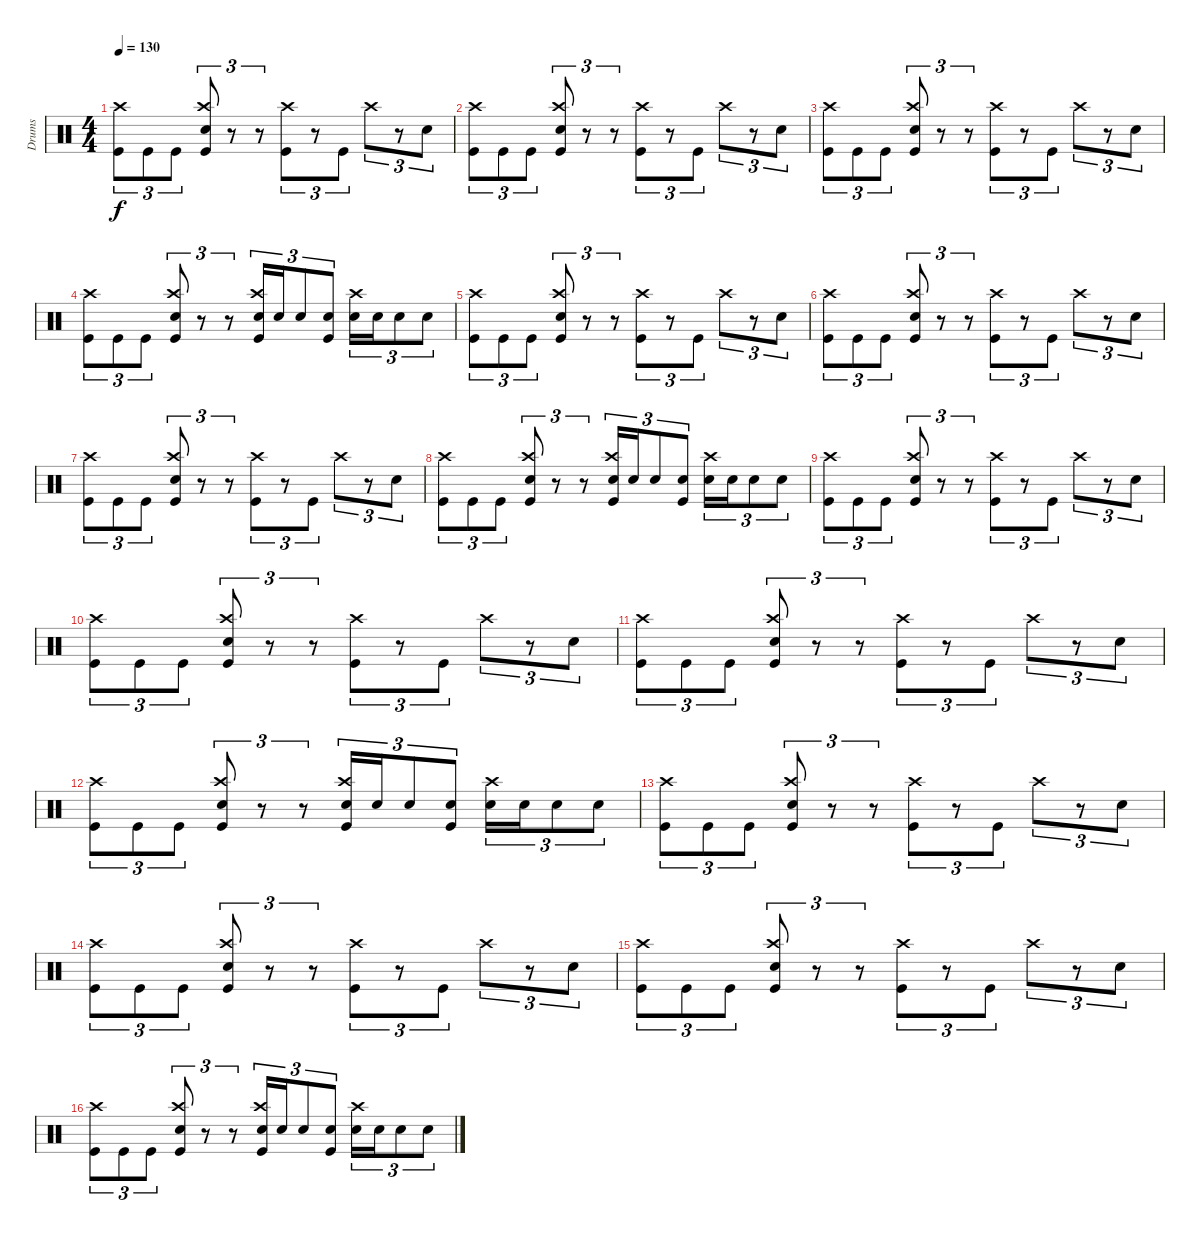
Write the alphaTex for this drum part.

\track ("Drums" "Drums") {instrument percussion}
\staff {score}
\articulation defaults
\ts (4 4)
\tempo 130
\clef neutral
\ks c
("Kick (hit)" "Crash high (hit)").8{tu (3 2) dy f} "Kick (hit)".8{tu (3 2)} "Kick (hit)".8{tu (3 2)} ("Kick (hit)" "Snare (hit) 2" "Crash high (hit)").8{tu (3 2)} r.8{tu (3 2)} r.8{tu (3 2)} ("Kick (hit)" "Crash high (hit)").8{tu (3 2)} r.8{tu (3 2)} "Kick (hit)".8{tu (3 2)} "Crash high (hit)".8{tu (3 2)} r.8{tu (3 2)} "Snare (hit) 2".8{tu (3 2)} |
("Kick (hit)" "Crash high (hit)").8{tu (3 2)} "Kick (hit)".8{tu (3 2)} "Kick (hit)".8{tu (3 2)} ("Kick (hit)" "Snare (hit) 2" "Crash high (hit)").8{tu (3 2)} r.8{tu (3 2)} r.8{tu (3 2)} ("Kick (hit)" "Crash high (hit)").8{tu (3 2)} r.8{tu (3 2)} "Kick (hit)".8{tu (3 2)} "Crash high (hit)".8{tu (3 2)} r.8{tu (3 2)} "Snare (hit) 2".8{tu (3 2)} |
("Kick (hit)" "Crash high (hit)").8{tu (3 2)} "Kick (hit)".8{tu (3 2)} "Kick (hit)".8{tu (3 2)} ("Kick (hit)" "Snare (hit) 2" "Crash high (hit)").8{tu (3 2)} r.8{tu (3 2)} r.8{tu (3 2)} ("Kick (hit)" "Crash high (hit)").8{tu (3 2)} r.8{tu (3 2)} "Kick (hit)".8{tu (3 2)} "Crash high (hit)".8{tu (3 2)} r.8{tu (3 2)} "Snare (hit) 2".8{tu (3 2)} |
("Kick (hit)" "Crash high (hit)").8{tu (3 2)} "Kick (hit)".8{tu (3 2)} "Kick (hit)".8{tu (3 2)} ("Kick (hit)" "Snare (hit) 2" "Crash high (hit)").8{tu (3 2)} r.8{tu (3 2)} r.8{tu (3 2)} ("Kick (hit)" "Snare (hit) 2" "Crash high (hit)").16{tu (3 2)} "Snare (hit) 2".16{tu (3 2)} "Snare (hit) 2".8{tu (3 2)} ("Kick (hit)" "Snare (hit) 2").8{tu (3 2)} ("Snare (hit) 2" "Crash high (hit)").16{tu (3 2)} "Snare (hit) 2".16{tu (3 2)} "Snare (hit) 2".8{tu (3 2)} "Snare (hit) 2".8{tu (3 2)} |
("Kick (hit)" "Crash high (hit)").8{tu (3 2)} "Kick (hit)".8{tu (3 2)} "Kick (hit)".8{tu (3 2)} ("Kick (hit)" "Snare (hit) 2" "Crash high (hit)").8{tu (3 2)} r.8{tu (3 2)} r.8{tu (3 2)} ("Kick (hit)" "Crash high (hit)").8{tu (3 2)} r.8{tu (3 2)} "Kick (hit)".8{tu (3 2)} "Crash high (hit)".8{tu (3 2)} r.8{tu (3 2)} "Snare (hit) 2".8{tu (3 2)} |
("Kick (hit)" "Crash high (hit)").8{tu (3 2)} "Kick (hit)".8{tu (3 2)} "Kick (hit)".8{tu (3 2)} ("Kick (hit)" "Snare (hit) 2" "Crash high (hit)").8{tu (3 2)} r.8{tu (3 2)} r.8{tu (3 2)} ("Kick (hit)" "Crash high (hit)").8{tu (3 2)} r.8{tu (3 2)} "Kick (hit)".8{tu (3 2)} "Crash high (hit)".8{tu (3 2)} r.8{tu (3 2)} "Snare (hit) 2".8{tu (3 2)} |
("Kick (hit)" "Crash high (hit)").8{tu (3 2)} "Kick (hit)".8{tu (3 2)} "Kick (hit)".8{tu (3 2)} ("Kick (hit)" "Snare (hit) 2" "Crash high (hit)").8{tu (3 2)} r.8{tu (3 2)} r.8{tu (3 2)} ("Kick (hit)" "Crash high (hit)").8{tu (3 2)} r.8{tu (3 2)} "Kick (hit)".8{tu (3 2)} "Crash high (hit)".8{tu (3 2)} r.8{tu (3 2)} "Snare (hit) 2".8{tu (3 2)} |
("Kick (hit)" "Crash high (hit)").8{tu (3 2)} "Kick (hit)".8{tu (3 2)} "Kick (hit)".8{tu (3 2)} ("Kick (hit)" "Snare (hit) 2" "Crash high (hit)").8{tu (3 2)} r.8{tu (3 2)} r.8{tu (3 2)} ("Kick (hit)" "Snare (hit) 2" "Crash high (hit)").16{tu (3 2)} "Snare (hit) 2".16{tu (3 2)} "Snare (hit) 2".8{tu (3 2)} ("Kick (hit)" "Snare (hit) 2").8{tu (3 2)} ("Snare (hit) 2" "Crash high (hit)").16{tu (3 2)} "Snare (hit) 2".16{tu (3 2)} "Snare (hit) 2".8{tu (3 2)} "Snare (hit) 2".8{tu (3 2)} |
("Kick (hit)" "Crash high (hit)").8{tu (3 2)} "Kick (hit)".8{tu (3 2)} "Kick (hit)".8{tu (3 2)} ("Kick (hit)" "Snare (hit) 2" "Crash high (hit)").8{tu (3 2)} r.8{tu (3 2)} r.8{tu (3 2)} ("Kick (hit)" "Crash high (hit)").8{tu (3 2)} r.8{tu (3 2)} "Kick (hit)".8{tu (3 2)} "Crash high (hit)".8{tu (3 2)} r.8{tu (3 2)} "Snare (hit) 2".8{tu (3 2)} |
("Kick (hit)" "Crash high (hit)").8{tu (3 2)} "Kick (hit)".8{tu (3 2)} "Kick (hit)".8{tu (3 2)} ("Kick (hit)" "Snare (hit) 2" "Crash high (hit)").8{tu (3 2)} r.8{tu (3 2)} r.8{tu (3 2)} ("Kick (hit)" "Crash high (hit)").8{tu (3 2)} r.8{tu (3 2)} "Kick (hit)".8{tu (3 2)} "Crash high (hit)".8{tu (3 2)} r.8{tu (3 2)} "Snare (hit) 2".8{tu (3 2)} |
("Kick (hit)" "Crash high (hit)").8{tu (3 2)} "Kick (hit)".8{tu (3 2)} "Kick (hit)".8{tu (3 2)} ("Kick (hit)" "Snare (hit) 2" "Crash high (hit)").8{tu (3 2)} r.8{tu (3 2)} r.8{tu (3 2)} ("Kick (hit)" "Crash high (hit)").8{tu (3 2)} r.8{tu (3 2)} "Kick (hit)".8{tu (3 2)} "Crash high (hit)".8{tu (3 2)} r.8{tu (3 2)} "Snare (hit) 2".8{tu (3 2)} |
("Kick (hit)" "Crash high (hit)").8{tu (3 2)} "Kick (hit)".8{tu (3 2)} "Kick (hit)".8{tu (3 2)} ("Kick (hit)" "Snare (hit) 2" "Crash high (hit)").8{tu (3 2)} r.8{tu (3 2)} r.8{tu (3 2)} ("Kick (hit)" "Snare (hit) 2" "Crash high (hit)").16{tu (3 2)} "Snare (hit) 2".16{tu (3 2)} "Snare (hit) 2".8{tu (3 2)} ("Kick (hit)" "Snare (hit) 2").8{tu (3 2)} ("Snare (hit) 2" "Crash high (hit)").16{tu (3 2)} "Snare (hit) 2".16{tu (3 2)} "Snare (hit) 2".8{tu (3 2)} "Snare (hit) 2".8{tu (3 2)} |
("Kick (hit)" "Crash high (hit)").8{tu (3 2)} "Kick (hit)".8{tu (3 2)} "Kick (hit)".8{tu (3 2)} ("Kick (hit)" "Snare (hit) 2" "Crash high (hit)").8{tu (3 2)} r.8{tu (3 2)} r.8{tu (3 2)} ("Kick (hit)" "Crash high (hit)").8{tu (3 2)} r.8{tu (3 2)} "Kick (hit)".8{tu (3 2)} "Crash high (hit)".8{tu (3 2)} r.8{tu (3 2)} "Snare (hit) 2".8{tu (3 2)} |
("Kick (hit)" "Crash high (hit)").8{tu (3 2)} "Kick (hit)".8{tu (3 2)} "Kick (hit)".8{tu (3 2)} ("Kick (hit)" "Snare (hit) 2" "Crash high (hit)").8{tu (3 2)} r.8{tu (3 2)} r.8{tu (3 2)} ("Kick (hit)" "Crash high (hit)").8{tu (3 2)} r.8{tu (3 2)} "Kick (hit)".8{tu (3 2)} "Crash high (hit)".8{tu (3 2)} r.8{tu (3 2)} "Snare (hit) 2".8{tu (3 2)} |
("Kick (hit)" "Crash high (hit)").8{tu (3 2)} "Kick (hit)".8{tu (3 2)} "Kick (hit)".8{tu (3 2)} ("Kick (hit)" "Snare (hit) 2" "Crash high (hit)").8{tu (3 2)} r.8{tu (3 2)} r.8{tu (3 2)} ("Kick (hit)" "Crash high (hit)").8{tu (3 2)} r.8{tu (3 2)} "Kick (hit)".8{tu (3 2)} "Crash high (hit)".8{tu (3 2)} r.8{tu (3 2)} "Snare (hit) 2".8{tu (3 2)} |
("Kick (hit)" "Crash high (hit)").8{tu (3 2)} "Kick (hit)".8{tu (3 2)} "Kick (hit)".8{tu (3 2)} ("Kick (hit)" "Snare (hit) 2" "Crash high (hit)").8{tu (3 2)} r.8{tu (3 2)} r.8{tu (3 2)} ("Kick (hit)" "Snare (hit) 2" "Crash high (hit)").16{tu (3 2)} "Snare (hit) 2".16{tu (3 2)} "Snare (hit) 2".8{tu (3 2)} ("Kick (hit)" "Snare (hit) 2").8{tu (3 2)} ("Snare (hit) 2" "Crash high (hit)").16{tu (3 2)} "Snare (hit) 2".16{tu (3 2)} "Snare (hit) 2".8{tu (3 2)} "Snare (hit) 2".8{tu (3 2)}
